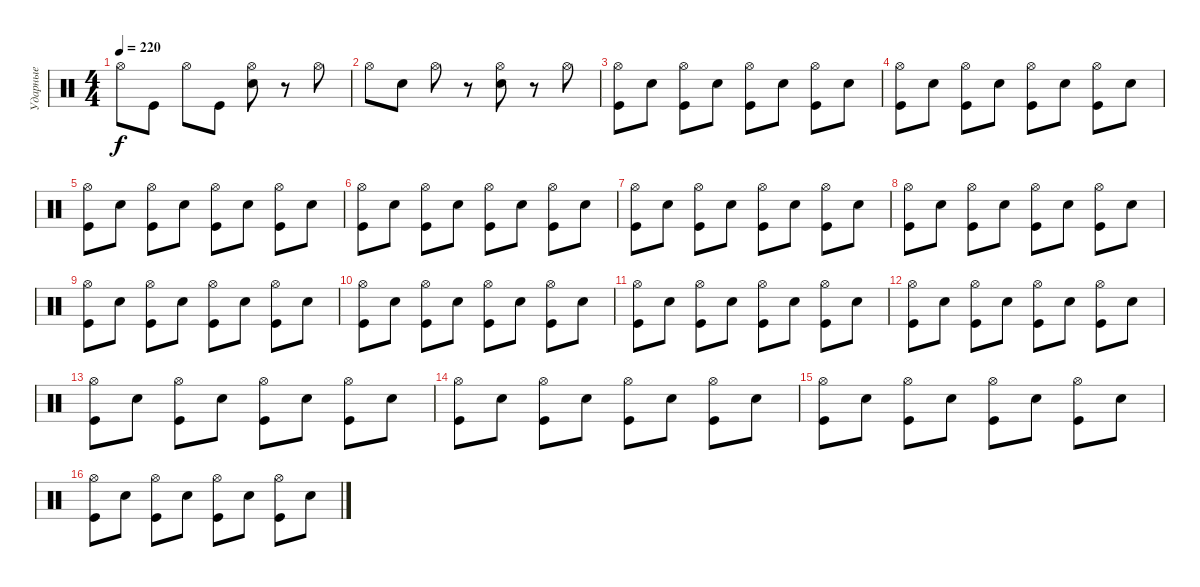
\track ("Ударные" "Ударные") {instrument percussion}
\staff {score}
\articulation defaults
\ts (4 4)
\tempo 220
\clef neutral
\ks c "Hi-Hat (open)".8{dy f} "Kick (hit)".8 "Hi-Hat (open)".8 "Kick (hit)".8
("Hi-Hat (open)" "Electric Snare (hit)").8 r.8 "Hi-Hat (open)".8 |
"Hi-Hat (open)".8 "Electric Snare (hit)".8 "Hi-Hat (open)".8 r.8 ("Hi-Hat (open)" "Electric Snare (hit)").8 r.8 "Hi-Hat (open)".8 |
("Hi-Hat (open)" "Kick (hit)").8 "Electric Snare (hit)".8 ("Hi-Hat (open)" "Kick (hit)").8 "Electric Snare (hit)".8 ("Hi-Hat (open)" "Kick (hit)").8 "Electric Snare (hit)".8 ("Hi-Hat (open)" "Kick (hit)").8 "Electric Snare (hit)".8 |
("Hi-Hat (open)" "Kick (hit)").8 "Electric Snare (hit)".8 ("Hi-Hat (open)" "Kick (hit)").8 "Electric Snare (hit)".8 ("Hi-Hat (open)" "Kick (hit)").8 "Electric Snare (hit)".8 ("Hi-Hat (open)" "Kick (hit)").8 "Electric Snare (hit)".8 |
("Hi-Hat (open)" "Kick (hit)").8 "Electric Snare (hit)".8 ("Hi-Hat (open)" "Kick (hit)").8 "Electric Snare (hit)".8 ("Hi-Hat (open)" "Kick (hit)").8 "Electric Snare (hit)".8 ("Hi-Hat (open)" "Kick (hit)").8 "Electric Snare (hit)".8 |
("Hi-Hat (open)" "Kick (hit)").8 "Electric Snare (hit)".8 ("Hi-Hat (open)" "Kick (hit)").8 "Electric Snare (hit)".8 ("Hi-Hat (open)" "Kick (hit)").8 "Electric Snare (hit)".8 ("Hi-Hat (open)" "Kick (hit)").8 "Electric Snare (hit)".8 |
("Hi-Hat (open)" "Kick (hit)").8 "Electric Snare (hit)".8 ("Hi-Hat (open)" "Kick (hit)").8 "Electric Snare (hit)".8 ("Hi-Hat (open)" "Kick (hit)").8 "Electric Snare (hit)".8 ("Hi-Hat (open)" "Kick (hit)").8 "Electric Snare (hit)".8 |
("Hi-Hat (open)" "Kick (hit)").8 "Electric Snare (hit)".8 ("Hi-Hat (open)" "Kick (hit)").8 "Electric Snare (hit)".8 ("Hi-Hat (open)" "Kick (hit)").8 "Electric Snare (hit)".8 ("Hi-Hat (open)" "Kick (hit)").8 "Electric Snare (hit)".8 |
("Hi-Hat (open)" "Kick (hit)").8 "Electric Snare (hit)".8 ("Hi-Hat (open)" "Kick (hit)").8 "Electric Snare (hit)".8 ("Hi-Hat (open)" "Kick (hit)").8 "Electric Snare (hit)".8 ("Hi-Hat (open)" "Kick (hit)").8 "Electric Snare (hit)".8 |
("Hi-Hat (open)" "Kick (hit)").8 "Electric Snare (hit)".8 ("Hi-Hat (open)" "Kick (hit)").8 "Electric Snare (hit)".8 ("Hi-Hat (open)" "Kick (hit)").8 "Electric Snare (hit)".8 ("Hi-Hat (open)" "Kick (hit)").8 "Electric Snare (hit)".8 |
("Hi-Hat (open)" "Kick (hit)").8 "Electric Snare (hit)".8 ("Hi-Hat (open)" "Kick (hit)").8 "Electric Snare (hit)".8 ("Hi-Hat (open)" "Kick (hit)").8 "Electric Snare (hit)".8 ("Hi-Hat (open)" "Kick (hit)").8 "Electric Snare (hit)".8 |
("Hi-Hat (open)" "Kick (hit)").8 "Electric Snare (hit)".8 ("Hi-Hat (open)" "Kick (hit)").8 "Electric Snare (hit)".8 ("Hi-Hat (open)" "Kick (hit)").8 "Electric Snare (hit)".8 ("Hi-Hat (open)" "Kick (hit)").8 "Electric Snare (hit)".8 |
("Hi-Hat (open)" "Kick (hit)").8 "Electric Snare (hit)".8 ("Hi-Hat (open)" "Kick (hit)").8 "Electric Snare (hit)".8 ("Hi-Hat (open)" "Kick (hit)").8 "Electric Snare (hit)".8 ("Hi-Hat (open)" "Kick (hit)").8 "Electric Snare (hit)".8 |
("Hi-Hat (open)" "Kick (hit)").8 "Electric Snare (hit)".8 ("Hi-Hat (open)" "Kick (hit)").8 "Electric Snare (hit)".8 ("Hi-Hat (open)" "Kick (hit)").8 "Electric Snare (hit)".8 ("Hi-Hat (open)" "Kick (hit)").8 "Electric Snare (hit)".8 |
("Hi-Hat (open)" "Kick (hit)").8 "Electric Snare (hit)".8 ("Hi-Hat (open)" "Kick (hit)").8 "Electric Snare (hit)".8 ("Hi-Hat (open)" "Kick (hit)").8 "Electric Snare (hit)".8 ("Hi-Hat (open)" "Kick (hit)").8 "Electric Snare (hit)".8 |
("Hi-Hat (open)" "Kick (hit)").8 "Electric Snare (hit)".8 ("Hi-Hat (open)" "Kick (hit)").8 "Electric Snare (hit)".8 ("Hi-Hat (open)" "Kick (hit)").8 "Electric Snare (hit)".8 ("Hi-Hat (open)" "Kick (hit)").8 "Electric Snare (hit)".8
